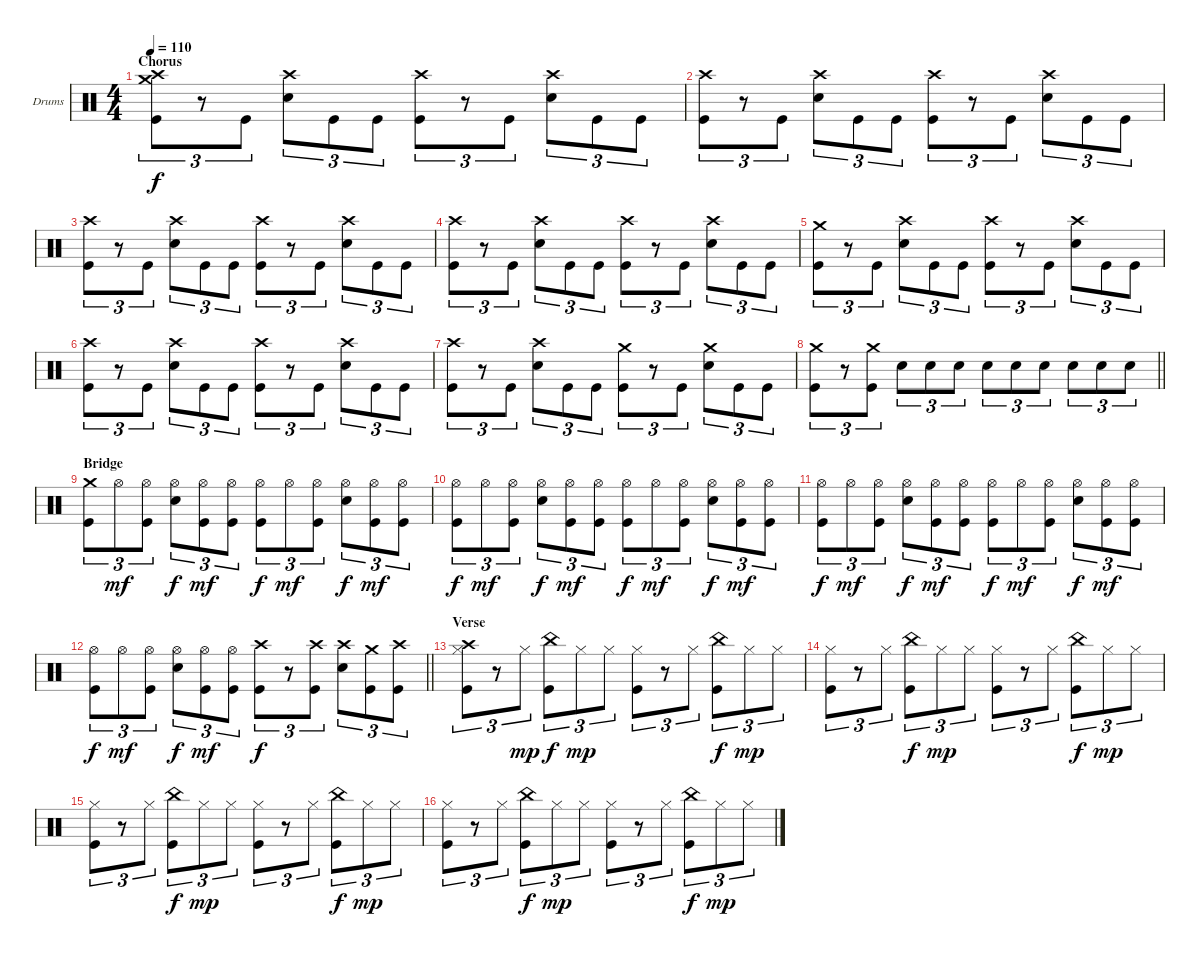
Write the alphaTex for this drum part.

\bracketExtendMode groupsimilarinstruments
\firstSystemTrackNameOrientation horizontal
\otherSystemsTrackNameOrientation horizontal
\track ("Drumkit" "Drums") {instrument percussion}
\staff {score}
\articulation defaults
\ts (4 4)
\section ("" "Chorus")
\tempo 110
\clef neutral
\ks c
("Crash high (hit)" "Crash medium (hit)" "Kick (hit)").8{tu (3 2) dy f} r.8{tu (3 2)} "Kick (hit)".8{tu (3 2)} ("Crash high (hit)" "Snare (hit) 2").8{tu (3 2)} "Kick (hit)".8{tu (3 2)} "Kick (hit)".8{tu (3 2)} ("Crash high (hit)" "Kick (hit)").8{tu (3 2)} r.8{tu (3 2)} "Kick (hit)".8{tu (3 2)} ("Crash high (hit)" "Snare (hit) 2").8{tu (3 2)} "Kick (hit)".8{tu (3 2)} "Kick (hit)".8{tu (3 2)} |
("Crash high (hit)" "Kick (hit)").8{tu (3 2)} r.8{tu (3 2)} "Kick (hit)".8{tu (3 2)} ("Crash high (hit)" "Snare (hit) 2").8{tu (3 2)} "Kick (hit)".8{tu (3 2)} "Kick (hit)".8{tu (3 2)} ("Crash high (hit)" "Kick (hit)").8{tu (3 2)} r.8{tu (3 2)} "Kick (hit)".8{tu (3 2)} ("Crash high (hit)" "Snare (hit) 2").8{tu (3 2)} "Kick (hit)".8{tu (3 2)} "Kick (hit)".8{tu (3 2)} |
("Crash high (hit)" "Kick (hit)").8{tu (3 2)} r.8{tu (3 2)} "Kick (hit)".8{tu (3 2)} ("Crash high (hit)" "Snare (hit) 2").8{tu (3 2)} "Kick (hit)".8{tu (3 2)} "Kick (hit)".8{tu (3 2)} ("Crash high (hit)" "Kick (hit)").8{tu (3 2)} r.8{tu (3 2)} "Kick (hit)".8{tu (3 2)} ("Crash high (hit)" "Snare (hit) 2").8{tu (3 2)} "Kick (hit)".8{tu (3 2)} "Kick (hit)".8{tu (3 2)} |
("Crash high (hit)" "Kick (hit)").8{tu (3 2)} r.8{tu (3 2)} "Kick (hit)".8{tu (3 2)} ("Crash high (hit)" "Snare (hit) 2").8{tu (3 2)} "Kick (hit)".8{tu (3 2)} "Kick (hit)".8{tu (3 2)} ("Crash high (hit)" "Kick (hit)").8{tu (3 2)} r.8{tu (3 2)} "Kick (hit)".8{tu (3 2)} ("Crash high (hit)" "Snare (hit) 2").8{tu (3 2)} "Kick (hit)".8{tu (3 2)} "Kick (hit)".8{tu (3 2)} |
("Crash medium (hit)" "Kick (hit)").8{tu (3 2)} r.8{tu (3 2)} "Kick (hit)".8{tu (3 2)} ("Crash high (hit)" "Snare (hit) 2").8{tu (3 2)} "Kick (hit)".8{tu (3 2)} "Kick (hit)".8{tu (3 2)} ("Crash high (hit)" "Kick (hit)").8{tu (3 2)} r.8{tu (3 2)} "Kick (hit)".8{tu (3 2)} ("Crash high (hit)" "Snare (hit) 2").8{tu (3 2)} "Kick (hit)".8{tu (3 2)} "Kick (hit)".8{tu (3 2)} |
("Crash high (hit)" "Kick (hit)").8{tu (3 2)} r.8{tu (3 2)} "Kick (hit)".8{tu (3 2)} ("Crash high (hit)" "Snare (hit) 2").8{tu (3 2)} "Kick (hit)".8{tu (3 2)} "Kick (hit)".8{tu (3 2)} ("Crash high (hit)" "Kick (hit)").8{tu (3 2)} r.8{tu (3 2)} "Kick (hit)".8{tu (3 2)} ("Crash high (hit)" "Snare (hit) 2").8{tu (3 2)} "Kick (hit)".8{tu (3 2)} "Kick (hit)".8{tu (3 2)} |
("Crash high (hit)" "Kick (hit)").8{tu (3 2)} r.8{tu (3 2)} "Kick (hit)".8{tu (3 2)} ("Crash high (hit)" "Snare (hit) 2").8{tu (3 2)} "Kick (hit)".8{tu (3 2)} "Kick (hit)".8{tu (3 2)} ("Crash medium (hit)" "Kick (hit)").8{tu (3 2)} r.8{tu (3 2)} "Kick (hit)".8{tu (3 2)} ("Crash medium (hit)" "Snare (hit) 2").8{tu (3 2)} "Kick (hit)".8{tu (3 2)} "Kick (hit)".8{tu (3 2)} |
\barLineRight lightlight
("Crash medium (hit)" "Kick (hit)").8{tu (3 2)} r.8{tu (3 2)} ("Crash medium (hit)" "Kick (hit)").8{tu (3 2)} "Snare (hit) 2".8{tu (3 2)} "Snare (hit) 2".8{tu (3 2)} "Snare (hit) 2".8{tu (3 2)} "Snare (hit) 2".8{tu (3 2)} "Snare (hit) 2".8{tu (3 2)} "Snare (hit) 2".8{tu (3 2)} "Snare (hit) 2".8{tu (3 2)} "Snare (hit) 2".8{tu (3 2)} "Snare (hit) 2".8{tu (3 2)} |
\section ("" "Bridge")
("Crash medium (hit)" "Kick (hit)").8{tu (3 2)} "Hi-Hat (open)".8{tu (3 2) dy mf} ("Hi-Hat (open)" "Kick (hit)").8{tu (3 2)} ("Hi-Hat (open)" "Snare (hit) 2").8{tu (3 2) dy f} ("Hi-Hat (open)" "Kick (hit)").8{tu (3 2) dy mf} ("Hi-Hat (open)" "Kick (hit)").8{tu (3 2)} ("Hi-Hat (open)" "Kick (hit)").8{tu (3 2) dy f} "Hi-Hat (open)".8{tu (3 2) dy mf} ("Hi-Hat (open)" "Kick (hit)").8{tu (3 2)} ("Hi-Hat (open)" "Snare (hit) 2").8{tu (3 2) dy f} ("Hi-Hat (open)" "Kick (hit)").8{tu (3 2) dy mf} ("Hi-Hat (open)" "Kick (hit)").8{tu (3 2)} |
("Hi-Hat (open)" "Kick (hit)").8{tu (3 2) dy f} "Hi-Hat (open)".8{tu (3 2) dy mf} ("Hi-Hat (open)" "Kick (hit)").8{tu (3 2)} ("Hi-Hat (open)" "Snare (hit) 2").8{tu (3 2) dy f} ("Hi-Hat (open)" "Kick (hit)").8{tu (3 2) dy mf} ("Hi-Hat (open)" "Kick (hit)").8{tu (3 2)} ("Hi-Hat (open)" "Kick (hit)").8{tu (3 2) dy f} "Hi-Hat (open)".8{tu (3 2) dy mf} ("Hi-Hat (open)" "Kick (hit)").8{tu (3 2)} ("Hi-Hat (open)" "Snare (hit) 2").8{tu (3 2) dy f} ("Hi-Hat (open)" "Kick (hit)").8{tu (3 2) dy mf} ("Hi-Hat (open)" "Kick (hit)").8{tu (3 2)} |
("Hi-Hat (open)" "Kick (hit)").8{tu (3 2) dy f} "Hi-Hat (open)".8{tu (3 2) dy mf} ("Hi-Hat (open)" "Kick (hit)").8{tu (3 2)} ("Hi-Hat (open)" "Snare (hit) 2").8{tu (3 2) dy f} ("Hi-Hat (open)" "Kick (hit)").8{tu (3 2) dy mf} ("Hi-Hat (open)" "Kick (hit)").8{tu (3 2)} ("Hi-Hat (open)" "Kick (hit)").8{tu (3 2) dy f} "Hi-Hat (open)".8{tu (3 2) dy mf} ("Hi-Hat (open)" "Kick (hit)").8{tu (3 2)} ("Hi-Hat (open)" "Snare (hit) 2").8{tu (3 2) dy f} ("Hi-Hat (open)" "Kick (hit)").8{tu (3 2) dy mf} ("Hi-Hat (open)" "Kick (hit)").8{tu (3 2)} |
\barLineRight lightlight
("Hi-Hat (open)" "Kick (hit)").8{tu (3 2) dy f} "Hi-Hat (open)".8{tu (3 2) dy mf} ("Hi-Hat (open)" "Kick (hit)").8{tu (3 2)} ("Hi-Hat (open)" "Snare (hit) 2").8{tu (3 2) dy f} ("Hi-Hat (open)" "Kick (hit)").8{tu (3 2) dy mf} ("Hi-Hat (open)" "Kick (hit)").8{tu (3 2)} ("Crash high (hit)" "Kick (hit)").8{tu (3 2) dy f} r.8{tu (3 2)} ("Crash high (hit)" "Kick (hit)").8{tu (3 2)} ("Crash high (hit)" "Snare (hit) 2").8{tu (3 2)} ("Crash medium (hit)" "Kick (hit)").8{tu (3 2)} ("Crash high (hit)" "Kick (hit)").8{tu (3 2)} |
\section ("" "Verse")
("Crash high (hit)" "Hi-Hat (closed)" "Kick (hit)").8{tu (3 2)} r.8{tu (3 2)} "Hi-Hat (closed)".8{tu (3 2) dy mp} ("China (hit)" "Kick (hit)").8{tu (3 2) dy f} "Hi-Hat (closed)".8{tu (3 2) dy mp} "Hi-Hat (closed)".8{tu (3 2)} ("Hi-Hat (closed)" "Kick (hit)").8{tu (3 2)} r.8{tu (3 2)} "Hi-Hat (closed)".8{tu (3 2)} ("China (hit)" "Kick (hit)").8{tu (3 2) dy f} "Hi-Hat (closed)".8{tu (3 2) dy mp} "Hi-Hat (closed)".8{tu (3 2)} |
("Hi-Hat (closed)" "Kick (hit)").8{tu (3 2)} r.8{tu (3 2)} "Hi-Hat (closed)".8{tu (3 2)} ("China (hit)" "Kick (hit)").8{tu (3 2) dy f} "Hi-Hat (closed)".8{tu (3 2) dy mp} "Hi-Hat (closed)".8{tu (3 2)} ("Hi-Hat (closed)" "Kick (hit)").8{tu (3 2)} r.8{tu (3 2)} "Hi-Hat (closed)".8{tu (3 2)} ("China (hit)" "Kick (hit)").8{tu (3 2) dy f} "Hi-Hat (closed)".8{tu (3 2) dy mp} "Hi-Hat (closed)".8{tu (3 2)} |
("Hi-Hat (closed)" "Kick (hit)").8{tu (3 2)} r.8{tu (3 2)} "Hi-Hat (closed)".8{tu (3 2)} ("China (hit)" "Kick (hit)").8{tu (3 2) dy f} "Hi-Hat (closed)".8{tu (3 2) dy mp} "Hi-Hat (closed)".8{tu (3 2)} ("Hi-Hat (closed)" "Kick (hit)").8{tu (3 2)} r.8{tu (3 2)} "Hi-Hat (closed)".8{tu (3 2)} ("China (hit)" "Kick (hit)").8{tu (3 2) dy f} "Hi-Hat (closed)".8{tu (3 2) dy mp} "Hi-Hat (closed)".8{tu (3 2)} |
("Hi-Hat (closed)" "Kick (hit)").8{tu (3 2)} r.8{tu (3 2)} "Hi-Hat (closed)".8{tu (3 2)} ("China (hit)" "Kick (hit)").8{tu (3 2) dy f} "Hi-Hat (closed)".8{tu (3 2) dy mp} "Hi-Hat (closed)".8{tu (3 2)} ("Hi-Hat (closed)" "Kick (hit)").8{tu (3 2)} r.8{tu (3 2)} "Hi-Hat (closed)".8{tu (3 2)} ("China (hit)" "Kick (hit)").8{tu (3 2) dy f} "Hi-Hat (closed)".8{tu (3 2) dy mp} "Hi-Hat (closed)".8{tu (3 2)}
